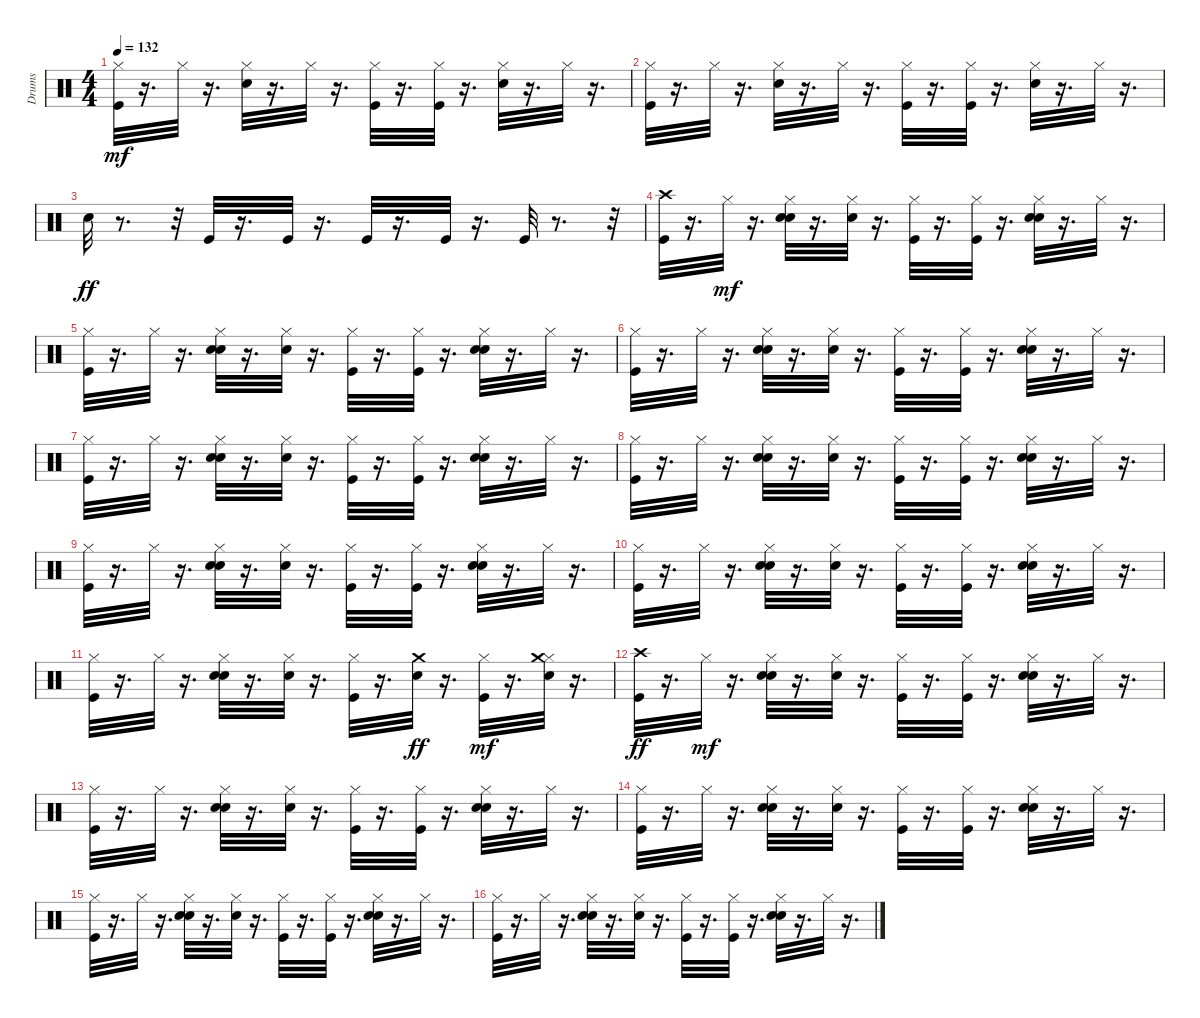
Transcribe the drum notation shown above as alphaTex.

\track ("Drums" "Drums") {instrument percussion}
\staff {score}
\articulation defaults
\ts (4 4)
\tempo 132
\clef neutral
\ks c
("Kick (hit)" "Hi-Hat (closed)").32{dy mf} r.16{d} "Hi-Hat (closed)".32 r.16{d} ("Electric Snare (hit)" "Hi-Hat (closed)").32 r.16{d} "Hi-Hat (closed)".32 r.16{d} ("Kick (hit)" "Hi-Hat (closed)").32 r.16{d} ("Kick (hit)" "Hi-Hat (closed)").32 r.16{d} ("Electric Snare (hit)" "Hi-Hat (closed)").32 r.16{d} "Hi-Hat (closed)".32 r.16{d} |
("Kick (hit)" "Hi-Hat (closed)").32 r.16{d} "Hi-Hat (closed)".32 r.16{d} ("Electric Snare (hit)" "Hi-Hat (closed)").32 r.16{d} "Hi-Hat (closed)".32 r.16{d} ("Kick (hit)" "Hi-Hat (closed)").32 r.16{d} ("Kick (hit)" "Hi-Hat (closed)").32 r.16{d} ("Electric Snare (hit)" "Hi-Hat (closed)").32 r.16{d} "Hi-Hat (closed)".32 r.16{d} |
"Electric Snare (hit)".32{dy ff} r.8{d} r.32 "Kick (hit)".32 r.16{d} "Kick (hit)".32 r.16{d} "Kick (hit)".32 r.16{d} "Kick (hit)".32 r.16{d} "Kick (hit)".32 r.8{d} r.32 |
("Kick (hit)" "Crash high (hit)").32 r.16{d} "Hi-Hat (closed)".32{dy mf} r.16{d} ("Hand Clap (hit)" "Electric Snare (hit)" "Hi-Hat (closed)").32 r.16{d} ("Hand Clap (hit)" "Hi-Hat (closed)").32 r.16{d} ("Kick (hit)" "Hi-Hat (closed)").32 r.16{d} ("Kick (hit)" "Hi-Hat (closed)").32 r.16{d} ("Hand Clap (hit)" "Electric Snare (hit)" "Hi-Hat (closed)").32 r.16{d} "Hi-Hat (closed)".32 r.16{d} |
("Kick (hit)" "Hi-Hat (closed)").32 r.16{d} "Hi-Hat (closed)".32 r.16{d} ("Hand Clap (hit)" "Electric Snare (hit)" "Hi-Hat (closed)").32 r.16{d} ("Hand Clap (hit)" "Hi-Hat (closed)").32 r.16{d} ("Kick (hit)" "Hi-Hat (closed)").32 r.16{d} ("Kick (hit)" "Hi-Hat (closed)").32 r.16{d} ("Hand Clap (hit)" "Electric Snare (hit)" "Hi-Hat (closed)").32 r.16{d} "Hi-Hat (closed)".32 r.16{d} |
("Kick (hit)" "Hi-Hat (closed)").32 r.16{d} "Hi-Hat (closed)".32 r.16{d} ("Hand Clap (hit)" "Electric Snare (hit)" "Hi-Hat (closed)").32 r.16{d} ("Hand Clap (hit)" "Hi-Hat (closed)").32 r.16{d} ("Kick (hit)" "Hi-Hat (closed)").32 r.16{d} ("Kick (hit)" "Hi-Hat (closed)").32 r.16{d} ("Hand Clap (hit)" "Electric Snare (hit)" "Hi-Hat (closed)").32 r.16{d} "Hi-Hat (closed)".32 r.16{d} |
("Kick (hit)" "Hi-Hat (closed)").32 r.16{d} "Hi-Hat (closed)".32 r.16{d} ("Hand Clap (hit)" "Electric Snare (hit)" "Hi-Hat (closed)").32 r.16{d} ("Hand Clap (hit)" "Hi-Hat (closed)").32 r.16{d} ("Kick (hit)" "Hi-Hat (closed)").32 r.16{d} ("Kick (hit)" "Hi-Hat (closed)").32 r.16{d} ("Hand Clap (hit)" "Electric Snare (hit)" "Hi-Hat (closed)").32 r.16{d} "Hi-Hat (closed)".32 r.16{d} |
("Kick (hit)" "Hi-Hat (closed)").32 r.16{d} "Hi-Hat (closed)".32 r.16{d} ("Hand Clap (hit)" "Electric Snare (hit)" "Hi-Hat (closed)").32 r.16{d} ("Hand Clap (hit)" "Hi-Hat (closed)").32 r.16{d} ("Kick (hit)" "Hi-Hat (closed)").32 r.16{d} ("Kick (hit)" "Hi-Hat (closed)").32 r.16{d} ("Hand Clap (hit)" "Electric Snare (hit)" "Hi-Hat (closed)").32 r.16{d} "Hi-Hat (closed)".32 r.16{d} |
("Kick (hit)" "Hi-Hat (closed)").32 r.16{d} "Hi-Hat (closed)".32 r.16{d} ("Hand Clap (hit)" "Electric Snare (hit)" "Hi-Hat (closed)").32 r.16{d} ("Hand Clap (hit)" "Hi-Hat (closed)").32 r.16{d} ("Kick (hit)" "Hi-Hat (closed)").32 r.16{d} ("Kick (hit)" "Hi-Hat (closed)").32 r.16{d} ("Hand Clap (hit)" "Electric Snare (hit)" "Hi-Hat (closed)").32 r.16{d} "Hi-Hat (closed)".32 r.16{d} |
("Kick (hit)" "Hi-Hat (closed)").32 r.16{d} "Hi-Hat (closed)".32 r.16{d} ("Hand Clap (hit)" "Electric Snare (hit)" "Hi-Hat (closed)").32 r.16{d} ("Hand Clap (hit)" "Hi-Hat (closed)").32 r.16{d} ("Kick (hit)" "Hi-Hat (closed)").32 r.16{d} ("Kick (hit)" "Hi-Hat (closed)").32 r.16{d} ("Hand Clap (hit)" "Electric Snare (hit)" "Hi-Hat (closed)").32 r.16{d} "Hi-Hat (closed)".32 r.16{d} |
("Kick (hit)" "Hi-Hat (closed)").32 r.16{d} "Hi-Hat (closed)".32 r.16{d} ("Hand Clap (hit)" "Electric Snare (hit)" "Hi-Hat (closed)").32 r.16{d} ("Hand Clap (hit)" "Hi-Hat (closed)").32 r.16{d} ("Kick (hit)" "Hi-Hat (closed)").32 r.16{d} ("Electric Snare (hit)" "Crash medium (hit)").32{dy ff} r.16{d} ("Kick (hit)" "Hi-Hat (closed)").32{dy mf} r.16{d} ("Electric Snare (hit)" "Hi-Hat (closed)" "Crash medium (hit)").32 r.16{d} |
("Kick (hit)" "Crash high (hit)").32{dy ff} r.16{d} "Hi-Hat (closed)".32{dy mf} r.16{d} ("Hand Clap (hit)" "Electric Snare (hit)" "Hi-Hat (closed)").32 r.16{d} ("Hand Clap (hit)" "Hi-Hat (closed)").32 r.16{d} ("Kick (hit)" "Hi-Hat (closed)").32 r.16{d} ("Kick (hit)" "Hi-Hat (closed)").32 r.16{d} ("Hand Clap (hit)" "Electric Snare (hit)" "Hi-Hat (closed)").32 r.16{d} "Hi-Hat (closed)".32 r.16{d} |
("Kick (hit)" "Hi-Hat (closed)").32 r.16{d} "Hi-Hat (closed)".32 r.16{d} ("Hand Clap (hit)" "Electric Snare (hit)" "Hi-Hat (closed)").32 r.16{d} ("Hand Clap (hit)" "Hi-Hat (closed)").32 r.16{d} ("Kick (hit)" "Hi-Hat (closed)").32 r.16{d} ("Kick (hit)" "Hi-Hat (closed)").32 r.16{d} ("Hand Clap (hit)" "Electric Snare (hit)" "Hi-Hat (closed)").32 r.16{d} "Hi-Hat (closed)".32 r.16{d} |
("Kick (hit)" "Hi-Hat (closed)").32 r.16{d} "Hi-Hat (closed)".32 r.16{d} ("Hand Clap (hit)" "Electric Snare (hit)" "Hi-Hat (closed)").32 r.16{d} ("Hand Clap (hit)" "Hi-Hat (closed)").32 r.16{d} ("Kick (hit)" "Hi-Hat (closed)").32 r.16{d} ("Kick (hit)" "Hi-Hat (closed)").32 r.16{d} ("Hand Clap (hit)" "Electric Snare (hit)" "Hi-Hat (closed)").32 r.16{d} "Hi-Hat (closed)".32 r.16{d} |
("Kick (hit)" "Hi-Hat (closed)").32 r.16{d} "Hi-Hat (closed)".32 r.16{d} ("Hand Clap (hit)" "Electric Snare (hit)" "Hi-Hat (closed)").32 r.16{d} ("Hand Clap (hit)" "Hi-Hat (closed)").32 r.16{d} ("Kick (hit)" "Hi-Hat (closed)").32 r.16{d} ("Kick (hit)" "Hi-Hat (closed)").32 r.16{d} ("Hand Clap (hit)" "Electric Snare (hit)" "Hi-Hat (closed)").32 r.16{d} "Hi-Hat (closed)".32 r.16{d} |
("Kick (hit)" "Hi-Hat (closed)").32 r.16{d} "Hi-Hat (closed)".32 r.16{d} ("Hand Clap (hit)" "Electric Snare (hit)" "Hi-Hat (closed)").32 r.16{d} ("Hand Clap (hit)" "Hi-Hat (closed)").32 r.16{d} ("Kick (hit)" "Hi-Hat (closed)").32 r.16{d} ("Kick (hit)" "Hi-Hat (closed)").32 r.16{d} ("Hand Clap (hit)" "Electric Snare (hit)" "Hi-Hat (closed)").32 r.16{d} "Hi-Hat (closed)".32 r.16{d}
